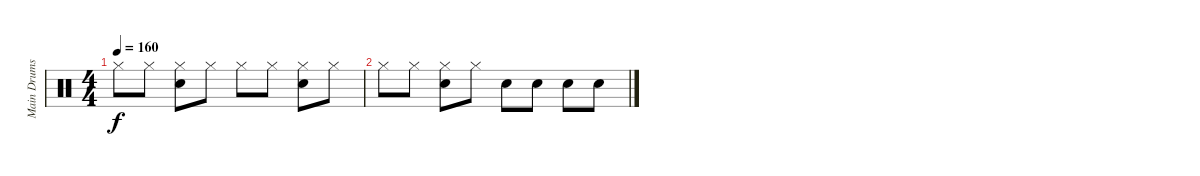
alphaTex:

\track ("Main Drumset" "Main Drums") {instrument percussion}
\staff {score}
\articulation defaults
\ts (4 4)
\tempo 160
\clef neutral
\ks c "Hi-Hat (closed)".8{dy f} "Hi-Hat (closed)".8
("Hi-Hat (closed)" "Electric Snare (hit)").8 "Hi-Hat (closed)".8 "Hi-Hat (closed)".8 "Hi-Hat (closed)".8 ("Hi-Hat (closed)" "Electric Snare (hit)").8 "Hi-Hat (closed)".8 |
"Hi-Hat (closed)".8 "Hi-Hat (closed)".8 ("Hi-Hat (closed)" "Electric Snare (hit)").8 "Hi-Hat (closed)".8 "Electric Snare (hit)".8 "Electric Snare (hit)".8 "Electric Snare (hit)".8 "Electric Snare (hit)".8
